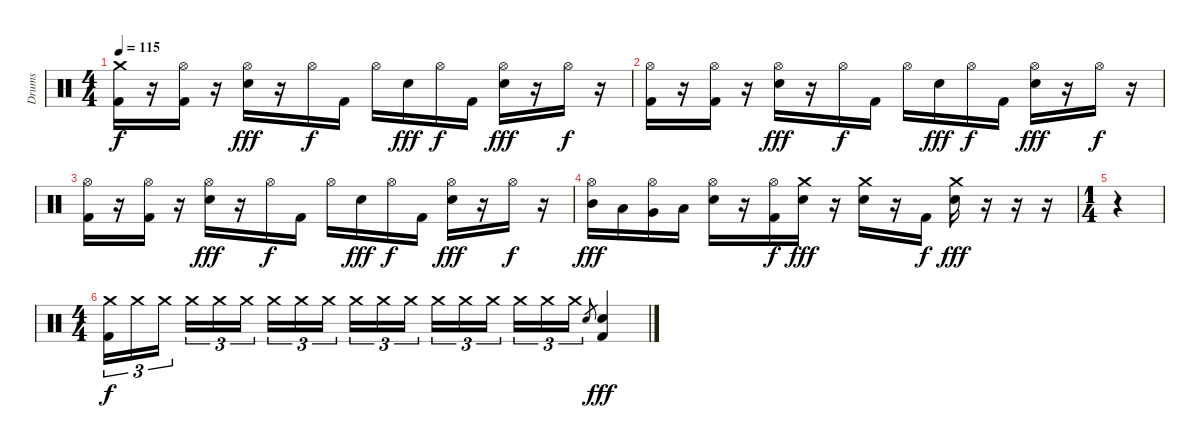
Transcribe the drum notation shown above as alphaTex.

\track ("Drums" "Drums") {instrument percussion}
\staff {score}
\articulation defaults
\ts (4 4)
\tempo 115
\clef neutral
\ks c
("Crash medium (hit)" "Kick (hit) 2").16{dy f} r.16 ("Hi-Hat (open)" "Kick (hit) 2").16 r.16 ("Hi-Hat (open)" "Snare (hit) 2").16{dy fff} r.16 "Hi-Hat (open)".16{dy f} "Kick (hit) 2".16 "Hi-Hat (open)".16 "Snare (hit) 2".16{dy fff} "Hi-Hat (open)".16{dy f} "Kick (hit) 2".16 ("Hi-Hat (open)" "Snare (hit) 2").16{dy fff} r.16 "Hi-Hat (open)".16{dy f} r.16 |
("Hi-Hat (open)" "Kick (hit) 2").16 r.16 ("Hi-Hat (open)" "Kick (hit) 2").16 r.16 ("Hi-Hat (open)" "Snare (hit) 2").16{dy fff} r.16 "Hi-Hat (open)".16{dy f} "Kick (hit) 2".16 "Hi-Hat (open)".16 "Snare (hit) 2".16{dy fff} "Hi-Hat (open)".16{dy f} "Kick (hit) 2".16 ("Hi-Hat (open)" "Snare (hit) 2").16{dy fff} r.16 "Hi-Hat (open)".16{dy f} r.16 |
("Hi-Hat (open)" "Kick (hit) 2").16 r.16 ("Hi-Hat (open)" "Kick (hit) 2").16 r.16 ("Hi-Hat (open)" "Snare (hit) 2").16{dy fff} r.16 "Hi-Hat (open)".16{dy f} "Kick (hit) 2".16 "Hi-Hat (open)".16 "Snare (hit) 2".16{dy fff} "Hi-Hat (open)".16{dy f} "Kick (hit) 2".16 ("Hi-Hat (open)" "Snare (hit) 2").16{dy fff} r.16 "Hi-Hat (open)".16{dy f} r.16 |
("Hi-Hat (open)" "Mid Tom (hit)").16{dy fff} "Low Tom (hit)".16 ("Hi-Hat (open)" "Very Low Tom (hit)").16 "Low Floor Tom (hit)".16 ("Hi-Hat (open)" "Snare (hit) 2").16 r.16 ("Hi-Hat (open)" "Kick (hit) 2").16{dy f} ("Crash medium (hit)" "Snare (hit) 2").16{dy fff} r.16 ("Crash medium (hit)" "Snare (hit) 2").16 r.16 "Kick (hit) 2".16{dy f} ("Crash medium (hit)" "Snare (hit) 2").16{dy fff} r.16 r.16 r.16 |
\ts (1 4)
r.4 |
\ts (4 4)
("Crash medium (hit)" "Kick (hit) 2").16{tu (3 2) dy f} "Crash medium (hit)".16{tu (3 2)} "Crash medium (hit)".16{tu (3 2)} "Crash medium (hit)".16{tu (3 2)} "Crash medium (hit)".16{tu (3 2)} "Crash medium (hit)".16{tu (3 2)} "Crash medium (hit)".16{tu (3 2)} "Crash medium (hit)".16{tu (3 2)} "Crash medium (hit)".16{tu (3 2)} "Crash medium (hit)".16{tu (3 2)} "Crash medium (hit)".16{tu (3 2)} "Crash medium (hit)".16{tu (3 2)} "Crash medium (hit)".16{tu (3 2)} "Crash medium (hit)".16{tu (3 2)} "Crash medium (hit)".16{tu (3 2)} "Crash medium (hit)".16{tu (3 2)} "Crash medium (hit)".16{tu (3 2)} "Crash medium (hit)".16{tu (3 2)} "Snare (hit) 2".8{gr} ("Snare (hit) 2" "Kick (hit) 2").4{dy fff}
